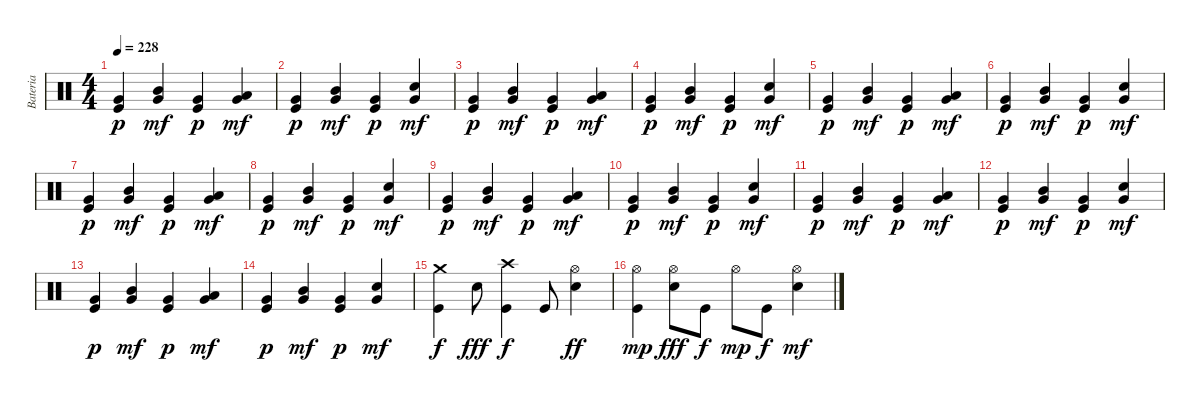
\track ("Bateria" "Bateria") {instrument percussion}
\staff {score}
\articulation defaults
\ts (4 4)
\tempo 228
\clef neutral
\ks c
("Kick (hit)" "Very Low Tom (hit)").4{dy p} ("Mid Tom (hit)" "Very Low Tom (hit)").4{dy mf} ("Kick (hit)" "Very Low Tom (hit)").4{dy p} ("Low Tom (hit)" "Very Low Tom (hit)").4{dy mf} |
("Kick (hit)" "Very Low Tom (hit)").4{dy p} ("Mid Tom (hit)" "Very Low Tom (hit)").4{dy mf} ("Kick (hit)" "Very Low Tom (hit)").4{dy p} ("Electric Snare (hit)" "Very Low Tom (hit)").4{dy mf} |
("Kick (hit)" "Very Low Tom (hit)").4{dy p} ("Mid Tom (hit)" "Very Low Tom (hit)").4{dy mf} ("Kick (hit)" "Very Low Tom (hit)").4{dy p} ("Low Tom (hit)" "Very Low Tom (hit)").4{dy mf} |
("Kick (hit)" "Very Low Tom (hit)").4{dy p} ("Mid Tom (hit)" "Very Low Tom (hit)").4{dy mf} ("Kick (hit)" "Very Low Tom (hit)").4{dy p} ("Electric Snare (hit)" "Very Low Tom (hit)").4{dy mf} |
("Kick (hit)" "Very Low Tom (hit)").4{dy p} ("Mid Tom (hit)" "Very Low Tom (hit)").4{dy mf} ("Kick (hit)" "Very Low Tom (hit)").4{dy p} ("Low Tom (hit)" "Very Low Tom (hit)").4{dy mf} |
("Kick (hit)" "Very Low Tom (hit)").4{dy p} ("Mid Tom (hit)" "Very Low Tom (hit)").4{dy mf} ("Kick (hit)" "Very Low Tom (hit)").4{dy p} ("Electric Snare (hit)" "Very Low Tom (hit)").4{dy mf} |
("Kick (hit)" "Very Low Tom (hit)").4{dy p} ("Mid Tom (hit)" "Very Low Tom (hit)").4{dy mf} ("Kick (hit)" "Very Low Tom (hit)").4{dy p} ("Low Tom (hit)" "Very Low Tom (hit)").4{dy mf} |
("Kick (hit)" "Very Low Tom (hit)").4{dy p} ("Mid Tom (hit)" "Very Low Tom (hit)").4{dy mf} ("Kick (hit)" "Very Low Tom (hit)").4{dy p} ("Electric Snare (hit)" "Very Low Tom (hit)").4{dy mf} |
("Kick (hit)" "Very Low Tom (hit)").4{dy p} ("Mid Tom (hit)" "Very Low Tom (hit)").4{dy mf} ("Kick (hit)" "Very Low Tom (hit)").4{dy p} ("Low Tom (hit)" "Very Low Tom (hit)").4{dy mf} |
("Kick (hit)" "Very Low Tom (hit)").4{dy p} ("Mid Tom (hit)" "Very Low Tom (hit)").4{dy mf} ("Kick (hit)" "Very Low Tom (hit)").4{dy p} ("Electric Snare (hit)" "Very Low Tom (hit)").4{dy mf} |
("Kick (hit)" "Very Low Tom (hit)").4{dy p} ("Mid Tom (hit)" "Very Low Tom (hit)").4{dy mf} ("Kick (hit)" "Very Low Tom (hit)").4{dy p} ("Low Tom (hit)" "Very Low Tom (hit)").4{dy mf} |
("Kick (hit)" "Very Low Tom (hit)").4{dy p} ("Mid Tom (hit)" "Very Low Tom (hit)").4{dy mf} ("Kick (hit)" "Very Low Tom (hit)").4{dy p} ("Electric Snare (hit)" "Very Low Tom (hit)").4{dy mf} |
("Kick (hit)" "Very Low Tom (hit)").4{dy p} ("Mid Tom (hit)" "Very Low Tom (hit)").4{dy mf} ("Kick (hit)" "Very Low Tom (hit)").4{dy p} ("Low Tom (hit)" "Very Low Tom (hit)").4{dy mf} |
("Kick (hit)" "Very Low Tom (hit)").4{dy p} ("Mid Tom (hit)" "Very Low Tom (hit)").4{dy mf} ("Kick (hit)" "Very Low Tom (hit)").4{dy p} ("Electric Snare (hit)" "Very Low Tom (hit)").4{dy mf} |
("Crash medium (hit)" "Kick (hit)").4{dy f} "Electric Snare (hit)".8{dy fff} ("Crash high (hit)" "Kick (hit)").4{dy f} "Kick (hit)".8 ("Hi-Hat (open)" "Electric Snare (hit)").4{dy ff} |
("Hi-Hat (open)" "Kick (hit)").4{dy mp} ("Hi-Hat (open)" "Electric Snare (hit)").8{dy fff} "Kick (hit)".8{dy f} "Hi-Hat (open)".8{dy mp} "Kick (hit)".8{dy f} ("Hi-Hat (open)" "Electric Snare (hit)").4{dy mf}
